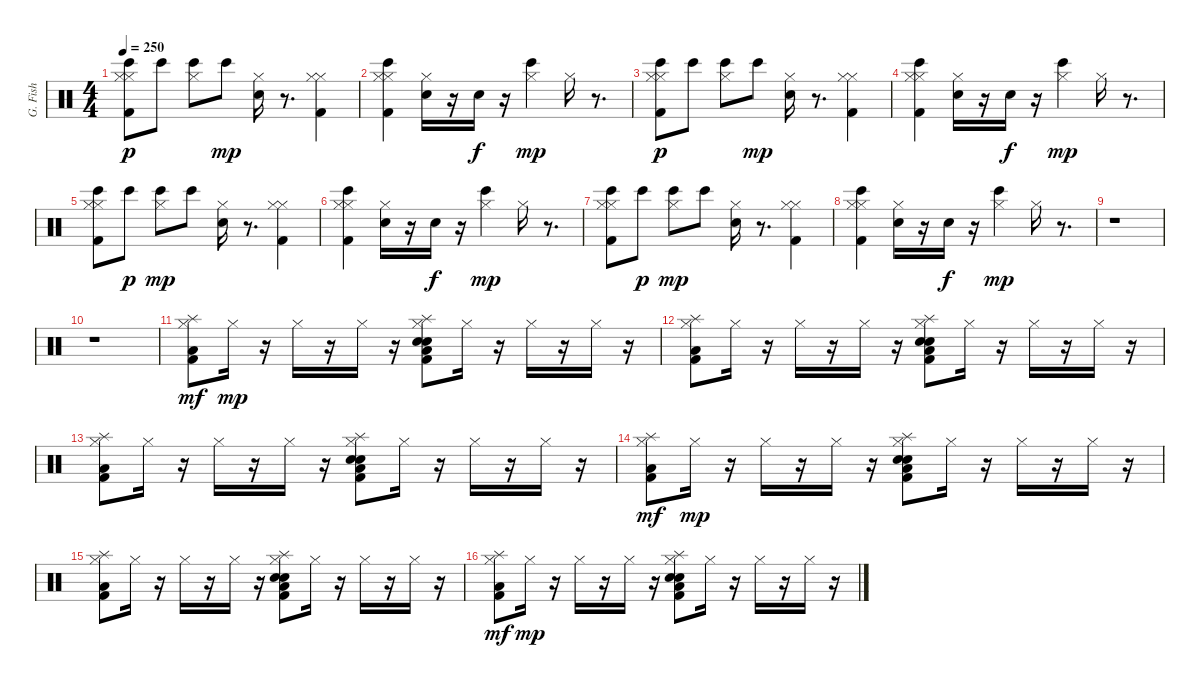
\track ("G. Fish" "G. Fish") {instrument percussion}
\staff {score}
\articulation defaults
\ts (4 4)
\tempo 250
\clef neutral
\ks c
("Hi-Hat (closed)" "Kick (hit) 2" "Hi-Hat (closed)" "Bongo High (hit)").8{dy p} "Bongo High (hit)".8 ("Hi-Hat (closed)" "Bongo High (hit)").8 "Bongo High (hit)".8{dy mp} ("Hi-Hat (closed)" "Electric Snare (hit)").16 r.8{d} ("Hi-Hat (closed)" "Kick (hit) 2" "Hi-Hat (closed)").4 |
("Hi-Hat (closed)" "Kick (hit) 2" "Hi-Hat (closed)" "Bongo High (hit)").4 ("Electric Snare (hit)" "Hi-Hat (closed)").16 r.16 "Electric Snare (hit)".16{dy f} r.16 ("Bongo High (hit)" "Hi-Hat (closed)").4{dy mp} "Hi-Hat (closed)".16 r.8{d} |
("Kick (hit) 2" "Hi-Hat (closed)" "Bongo High (hit)" "Hi-Hat (closed)").8{dy p} "Bongo High (hit)".8 ("Hi-Hat (closed)" "Bongo High (hit)").8 "Bongo High (hit)".8{dy mp} ("Electric Snare (hit)" "Hi-Hat (closed)").16 r.8{d} ("Kick (hit) 2" "Hi-Hat (closed)" "Hi-Hat (closed)").4 |
("Kick (hit) 2" "Hi-Hat (closed)" "Hi-Hat (closed)" "Bongo High (hit)").4 ("Electric Snare (hit)" "Hi-Hat (closed)").16 r.16 "Electric Snare (hit)".16{dy f} r.16 ("Hi-Hat (closed)" "Bongo High (hit)").4{dy mp} "Hi-Hat (closed)".16 r.8{d} |
("Hi-Hat (closed)" "Bongo High (hit)" "Kick (hit) 2" "Hi-Hat (closed)").8 "Bongo High (hit)".8{dy p} ("Bongo High (hit)" "Hi-Hat (closed)").8{dy mp} "Bongo High (hit)".8 ("Hi-Hat (closed)" "Electric Snare (hit)").16 r.8{d} ("Hi-Hat (closed)" "Kick (hit) 2" "Hi-Hat (closed)").4 |
("Hi-Hat (closed)" "Kick (hit) 2" "Hi-Hat (closed)" "Bongo High (hit)").4 ("Electric Snare (hit)" "Hi-Hat (closed)").16 r.16 "Electric Snare (hit)".16{dy f} r.16 ("Bongo High (hit)" "Hi-Hat (closed)").4{dy mp} "Hi-Hat (closed)".16 r.8{d} |
("Bongo High (hit)" "Hi-Hat (closed)" "Kick (hit) 2" "Hi-Hat (closed)").8 "Bongo High (hit)".8{dy p} ("Bongo High (hit)" "Hi-Hat (closed)").8{dy mp} "Bongo High (hit)".8 ("Hi-Hat (closed)" "Electric Snare (hit)").16 r.8{d} ("Hi-Hat (closed)" "Kick (hit) 2" "Hi-Hat (closed)").4 |
("Hi-Hat (closed)" "Bongo High (hit)" "Kick (hit) 2" "Hi-Hat (closed)").4 ("Electric Snare (hit)" "Hi-Hat (closed)").16 r.16 "Electric Snare (hit)".16{dy f} r.16 ("Bongo High (hit)" "Hi-Hat (closed)").4{dy mp} "Hi-Hat (closed)".16 r.8{d} |
r.1 |
r.1 |
("Low Floor Tom (hit)" "Hi-Hat (closed)" "Kick (hit) 2" "Splash (hit)").8{dy mf} "Hi-Hat (closed)".16{dy mp} r.16 "Hi-Hat (closed)".16 r.16 "Hi-Hat (closed)".16 r.16 ("Low Floor Tom (hit)" "Snare (hit) 2" "Electric Snare (hit)" "Kick (hit) 2" "Splash (hit)" "Hi-Hat (closed)").8 "Hi-Hat (closed)".16 r.16 "Hi-Hat (closed)".16 r.16 "Hi-Hat (closed)".16 r.16 |
("Low Floor Tom (hit)" "Kick (hit) 2" "Splash (hit)" "Hi-Hat (closed)").8 "Hi-Hat (closed)".16 r.16 "Hi-Hat (closed)".16 r.16 "Hi-Hat (closed)".16 r.16 ("Snare (hit) 2" "Electric Snare (hit)" "Kick (hit) 2" "Splash (hit)" "Low Floor Tom (hit)" "Hi-Hat (closed)").8 "Hi-Hat (closed)".16 r.16 "Hi-Hat (closed)".16 r.16 "Hi-Hat (closed)".16 r.16 |
("Kick (hit) 2" "Splash (hit)" "Hi-Hat (closed)" "Low Floor Tom (hit)").8 "Hi-Hat (closed)".16 r.16 "Hi-Hat (closed)".16 r.16 "Hi-Hat (closed)".16 r.16 ("Snare (hit) 2" "Kick (hit) 2" "Splash (hit)" "Electric Snare (hit)" "Low Floor Tom (hit)" "Hi-Hat (closed)").8 "Hi-Hat (closed)".16 r.16 "Hi-Hat (closed)".16 r.16 "Hi-Hat (closed)".16 r.16 |
("Hi-Hat (closed)" "Low Floor Tom (hit)" "Kick (hit) 2" "Splash (hit)").8{dy mf} "Hi-Hat (closed)".16{dy mp} r.16 "Hi-Hat (closed)".16 r.16 "Hi-Hat (closed)".16 r.16 ("Snare (hit) 2" "Electric Snare (hit)" "Kick (hit) 2" "Splash (hit)" "Low Floor Tom (hit)" "Hi-Hat (closed)").8 "Hi-Hat (closed)".16 r.16 "Hi-Hat (closed)".16 r.16 "Hi-Hat (closed)".16 r.16 |
("Kick (hit) 2" "Splash (hit)" "Hi-Hat (closed)" "Low Floor Tom (hit)").8 "Hi-Hat (closed)".16 r.16 "Hi-Hat (closed)".16 r.16 "Hi-Hat (closed)".16 r.16 ("Snare (hit) 2" "Kick (hit) 2" "Splash (hit)" "Electric Snare (hit)" "Low Floor Tom (hit)" "Hi-Hat (closed)").8 "Hi-Hat (closed)".16 r.16 "Hi-Hat (closed)".16 r.16 "Hi-Hat (closed)".16 r.16 |
("Hi-Hat (closed)" "Low Floor Tom (hit)" "Kick (hit) 2" "Splash (hit)").8{dy mf} "Hi-Hat (closed)".16{dy mp} r.16 "Hi-Hat (closed)".16 r.16 "Hi-Hat (closed)".16 r.16 ("Snare (hit) 2" "Electric Snare (hit)" "Kick (hit) 2" "Splash (hit)" "Low Floor Tom (hit)" "Hi-Hat (closed)").8 "Hi-Hat (closed)".16 r.16 "Hi-Hat (closed)".16 r.16 "Hi-Hat (closed)".16 r.16
